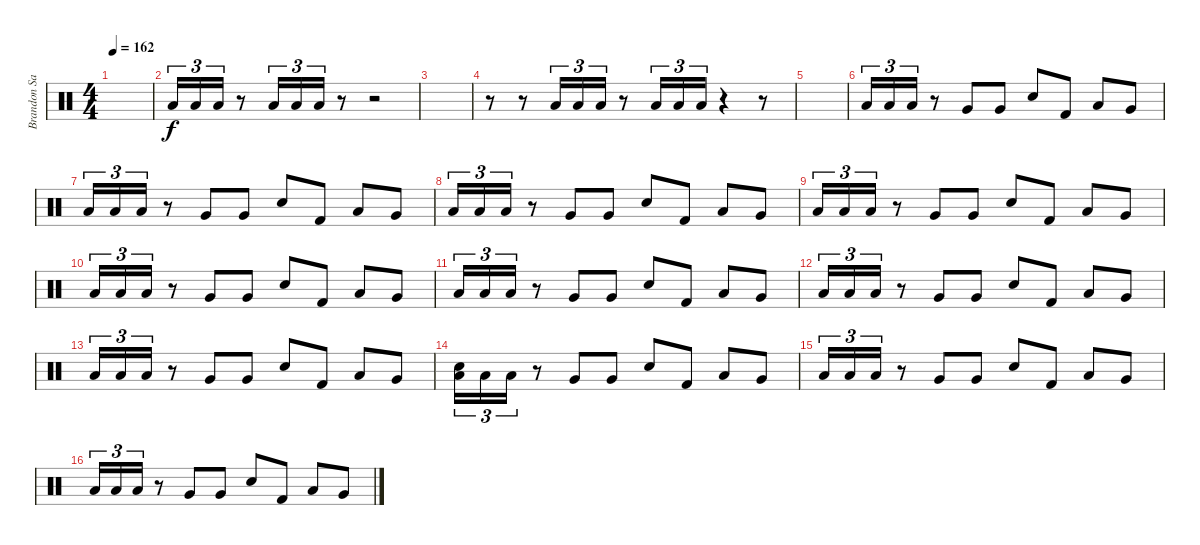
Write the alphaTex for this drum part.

\track ("Brandon Saller" "Brandon Sa") {instrument percussion}
\staff {score}
\articulation defaults
\ts (4 4)
\tempo 162
\clef neutral
\ks c
|
"Low Floor Tom (hit)".16{tu (3 2)} "Low Floor Tom (hit)".16{tu (3 2)} "Low Floor Tom (hit)".16{tu (3 2)} r.8 "Low Floor Tom (hit)".16{tu (3 2)} "Low Floor Tom (hit)".16{tu (3 2)} "Low Floor Tom (hit)".16{tu (3 2)} r.8 r.2 |
|
r.8 r.8 "Low Floor Tom (hit)".16{tu (3 2)} "Low Floor Tom (hit)".16{tu (3 2)} "Low Floor Tom (hit)".16{tu (3 2)} r.8 "Low Floor Tom (hit)".16{tu (3 2)} "Low Floor Tom (hit)".16{tu (3 2)} "Low Floor Tom (hit)".16{tu (3 2)} r.4 r.8 |
|
"Low Floor Tom (hit)".16{tu (3 2)} "Low Floor Tom (hit)".16{tu (3 2)} "Low Floor Tom (hit)".16{tu (3 2)} r.8 "Very Low Tom (hit)".8 "Very Low Tom (hit)".8 "Electric Snare (hit)".8 "Kick (hit) 2".8 "Low Tom (hit)".8 "Very Low Tom (hit)".8 |
"Low Floor Tom (hit)".16{tu (3 2)} "Low Floor Tom (hit)".16{tu (3 2)} "Low Floor Tom (hit)".16{tu (3 2)} r.8 "Very Low Tom (hit)".8 "Very Low Tom (hit)".8 "Electric Snare (hit)".8 "Kick (hit) 2".8 "Low Tom (hit)".8 "Very Low Tom (hit)".8 |
"Low Floor Tom (hit)".16{tu (3 2)} "Low Floor Tom (hit)".16{tu (3 2)} "Low Floor Tom (hit)".16{tu (3 2)} r.8 "Very Low Tom (hit)".8 "Very Low Tom (hit)".8 "Electric Snare (hit)".8 "Kick (hit) 2".8 "Low Tom (hit)".8 "Very Low Tom (hit)".8 |
"Low Floor Tom (hit)".16{tu (3 2)} "Low Floor Tom (hit)".16{tu (3 2)} "Low Floor Tom (hit)".16{tu (3 2)} r.8 "Very Low Tom (hit)".8 "Very Low Tom (hit)".8 "Electric Snare (hit)".8 "Kick (hit) 2".8 "Low Tom (hit)".8 "Very Low Tom (hit)".8 |
"Low Floor Tom (hit)".16{tu (3 2)} "Low Floor Tom (hit)".16{tu (3 2)} "Low Floor Tom (hit)".16{tu (3 2)} r.8 "Very Low Tom (hit)".8 "Very Low Tom (hit)".8 "Electric Snare (hit)".8 "Kick (hit) 2".8 "Low Tom (hit)".8 "Very Low Tom (hit)".8 |
"Low Floor Tom (hit)".16{tu (3 2)} "Low Floor Tom (hit)".16{tu (3 2)} "Low Floor Tom (hit)".16{tu (3 2)} r.8 "Very Low Tom (hit)".8 "Very Low Tom (hit)".8 "Electric Snare (hit)".8 "Kick (hit) 2".8 "Low Tom (hit)".8 "Very Low Tom (hit)".8 |
"Low Floor Tom (hit)".16{tu (3 2)} "Low Floor Tom (hit)".16{tu (3 2)} "Low Floor Tom (hit)".16{tu (3 2)} r.8 "Very Low Tom (hit)".8 "Very Low Tom (hit)".8 "Electric Snare (hit)".8 "Kick (hit) 2".8 "Low Tom (hit)".8 "Very Low Tom (hit)".8 |
"Low Floor Tom (hit)".16{tu (3 2)} "Low Floor Tom (hit)".16{tu (3 2)} "Low Floor Tom (hit)".16{tu (3 2)} r.8 "Very Low Tom (hit)".8 "Very Low Tom (hit)".8 "Electric Snare (hit)".8 "Kick (hit) 2".8 "Low Tom (hit)".8 "Very Low Tom (hit)".8 |
("Electric Snare (hit)" "Low Floor Tom (hit)").16{tu (3 2)} "Low Floor Tom (hit)".16{tu (3 2)} "Low Floor Tom (hit)".16{tu (3 2)} r.8 "Very Low Tom (hit)".8 "Very Low Tom (hit)".8 "Electric Snare (hit)".8 "Kick (hit) 2".8 "Low Tom (hit)".8 "Very Low Tom (hit)".8 |
"Low Floor Tom (hit)".16{tu (3 2)} "Low Floor Tom (hit)".16{tu (3 2)} "Low Floor Tom (hit)".16{tu (3 2)} r.8 "Very Low Tom (hit)".8 "Very Low Tom (hit)".8 "Electric Snare (hit)".8 "Kick (hit) 2".8 "Low Tom (hit)".8 "Very Low Tom (hit)".8 |
"Low Floor Tom (hit)".16{tu (3 2)} "Low Floor Tom (hit)".16{tu (3 2)} "Low Floor Tom (hit)".16{tu (3 2)} r.8 "Very Low Tom (hit)".8 "Very Low Tom (hit)".8 "Electric Snare (hit)".8 "Kick (hit) 2".8 "Low Tom (hit)".8 "Very Low Tom (hit)".8
